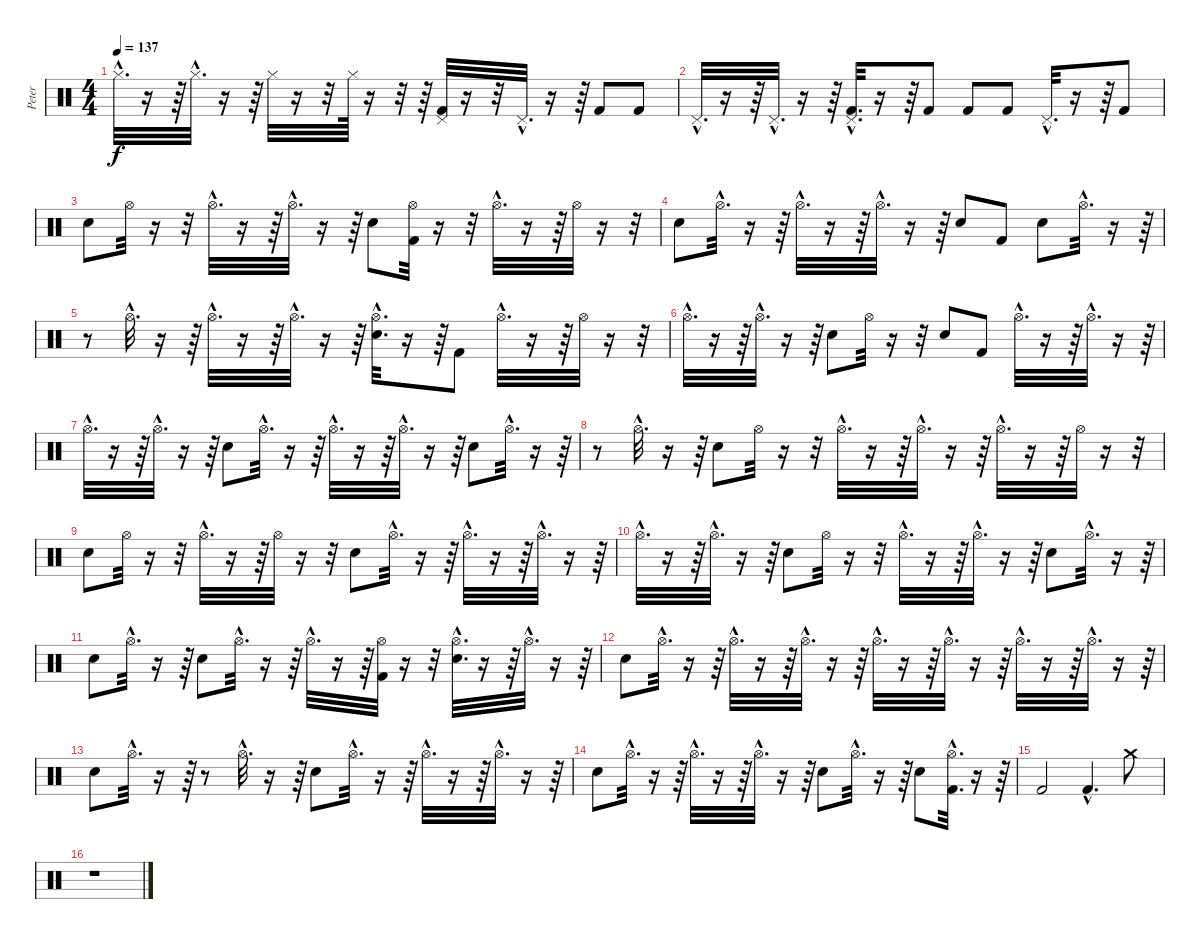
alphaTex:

\track ("Peter" "Peter") {instrument percussion}
\staff {score}
\articulation defaults
\ts (4 4)
\tempo 137
\clef neutral
\ks c "Hi-Hat (closed)"{hac}.32{d dy f}
r.16 r.64 "Hi-Hat (closed)"{hac}.32{d} r.16 r.64 "Hi-Hat (closed)".32 r.16 r.32 "Hi-Hat (closed)".64 r.16 r.32 r.64 ("Kick (hit) 2" "Pedal Hi-Hat (hit)").32 r.16 r.32 "Pedal Hi-Hat (hit)"{hac}.32{d} r.16 r.64 "Kick (hit) 2".8 "Kick (hit) 2".8 |
"Pedal Hi-Hat (hit)"{hac}.32{d} r.16 r.64 "Pedal Hi-Hat (hit)"{hac}.32{d} r.16 r.64 ("Kick (hit) 2"{hac} "Pedal Hi-Hat (hit)"{hac}).32{d} r.16 r.64 "Kick (hit) 2".8 "Kick (hit) 2".8 "Kick (hit) 2".8 "Pedal Hi-Hat (hit)"{hac}.32{d} r.16 r.64 "Kick (hit) 2".8 |
"Electric Snare (hit)".8 "Hi-Hat (open)".32 r.16 r.32 "Hi-Hat (open)"{hac}.32{d} r.16 r.64 "Hi-Hat (open)"{hac}.32{d} r.16 r.64 "Electric Snare (hit)".8 ("Kick (hit) 2" "Hi-Hat (open)").32 r.16 r.32 "Hi-Hat (open)"{hac}.32{d} r.16 r.64 "Hi-Hat (open)".32 r.16 r.32 |
"Electric Snare (hit)".8 "Hi-Hat (open)"{hac}.32{d} r.16 r.64 "Hi-Hat (open)"{hac}.32{d} r.16 r.64 "Hi-Hat (open)"{hac}.32{d} r.16 r.64 "Electric Snare (hit)".8 "Kick (hit) 2".8 "Electric Snare (hit)".8 "Hi-Hat (open)"{hac}.32{d} r.16 r.64 |
r.8 "Hi-Hat (open)"{hac}.32{d} r.16 r.64 "Hi-Hat (open)"{hac}.32{d} r.16 r.64 "Hi-Hat (open)"{hac}.32{d} r.16 r.64 ("Electric Snare (hit)"{hac} "Hi-Hat (open)"{hac}).32{d} r.16 r.64 "Kick (hit) 2".8 "Hi-Hat (open)"{hac}.32{d} r.16 r.64 "Hi-Hat (open)".32 r.16 r.32 |
"Hi-Hat (open)"{hac}.32{d} r.16 r.64 "Hi-Hat (open)"{hac}.32{d} r.16 r.64 "Electric Snare (hit)".8 "Hi-Hat (open)".32 r.16 r.32 "Electric Snare (hit)".8 "Kick (hit) 2".8 "Hi-Hat (open)"{hac}.32{d} r.16 r.64 "Hi-Hat (open)"{hac}.32{d} r.16 r.64 |
"Hi-Hat (open)"{hac}.32{d} r.16 r.64 "Hi-Hat (open)"{hac}.32{d} r.16 r.64 "Electric Snare (hit)".8 "Hi-Hat (open)"{hac}.32{d} r.16 r.64 "Hi-Hat (open)"{hac}.32{d} r.16 r.64 "Hi-Hat (open)"{hac}.32{d} r.16 r.64 "Electric Snare (hit)".8 "Hi-Hat (open)"{hac}.32{d} r.16 r.64 |
r.8 "Hi-Hat (open)"{hac}.32{d} r.16 r.64 "Electric Snare (hit)".8 "Hi-Hat (open)".32 r.16 r.32 "Hi-Hat (open)"{hac}.32{d} r.16 r.64 "Hi-Hat (open)"{hac}.32{d} r.16 r.64 "Hi-Hat (open)"{hac}.32{d} r.16 r.64 "Hi-Hat (open)".32 r.16 r.32 |
"Electric Snare (hit)".8 "Hi-Hat (open)".32 r.16 r.32 "Hi-Hat (open)"{hac}.32{d} r.16 r.64 "Hi-Hat (open)".32 r.16 r.32 "Electric Snare (hit)".8 "Hi-Hat (open)"{hac}.32{d} r.16 r.64 "Hi-Hat (open)"{hac}.32{d} r.16 r.64 "Hi-Hat (open)"{hac}.32{d} r.16 r.64 |
"Hi-Hat (open)"{hac}.32{d} r.16 r.64 "Hi-Hat (open)"{hac}.32{d} r.16 r.64 "Electric Snare (hit)".8 "Hi-Hat (open)".32 r.16 r.32 "Hi-Hat (open)"{hac}.32{d} r.16 r.64 "Hi-Hat (open)"{hac}.32{d} r.16 r.64 "Electric Snare (hit)".8 "Hi-Hat (open)"{hac}.32{d} r.16 r.64 |
"Electric Snare (hit)".8 "Hi-Hat (open)"{hac}.32{d} r.16 r.64 "Electric Snare (hit)".8 "Hi-Hat (open)"{hac}.32{d} r.16 r.64 "Hi-Hat (open)"{hac}.32{d} r.16 r.64 ("Kick (hit) 2" "Hi-Hat (open)").32 r.16 r.32 ("Electric Snare (hit)"{hac} "Hi-Hat (open)"{hac}).32{d} r.16 r.64 "Hi-Hat (open)"{hac}.32{d} r.16 r.64 |
"Electric Snare (hit)".8 "Hi-Hat (open)"{hac}.32{d} r.16 r.64 "Hi-Hat (open)"{hac}.32{d} r.16 r.64 "Hi-Hat (open)"{hac}.32{d} r.16 r.64 "Hi-Hat (open)"{hac}.32{d} r.16 r.64 "Hi-Hat (open)"{hac}.32{d} r.16 r.64 "Hi-Hat (open)"{hac}.32{d} r.16 r.64 "Hi-Hat (open)"{hac}.32{d} r.16 r.64 |
"Electric Snare (hit)".8 "Hi-Hat (open)"{hac}.32{d} r.16 r.64 r.8 "Hi-Hat (open)"{hac}.32{d} r.16 r.64 "Electric Snare (hit)".8 "Hi-Hat (open)"{hac}.32{d} r.16 r.64 "Hi-Hat (open)"{hac}.32{d} r.16 r.64 "Hi-Hat (open)"{hac}.32{d} r.16 r.64 |
"Electric Snare (hit)".8 "Hi-Hat (open)"{hac}.32{d} r.16 r.64 "Hi-Hat (open)"{hac}.32{d} r.16 r.64 "Hi-Hat (open)"{hac}.32{d} r.16 r.64 "Electric Snare (hit)".8 "Hi-Hat (open)"{hac}.32{d} r.16 r.64 "Electric Snare (hit)".8 ("Kick (hit) 2"{hac} "Hi-Hat (open)"{hac}).32{d} r.16 r.64 |
"Kick (hit) 2".2 "Kick (hit) 2"{hac}.4{d} "Crash medium (hit)".8 |
r.1
